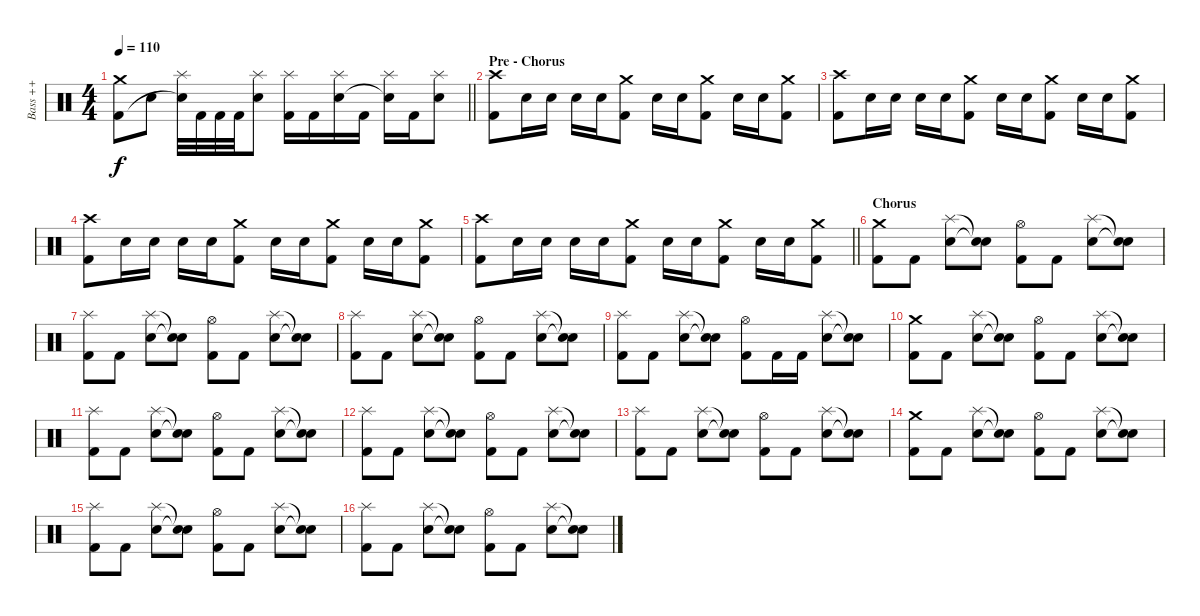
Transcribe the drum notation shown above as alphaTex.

\track ("  Bass ++" "  Bass ++") {instrument percussion}
\staff {score}
\articulation defaults
\ts (4 4)
\tempo 110
\clef neutral
\barLineRight lightlight
\ks c
("Crash medium (hit)" "Kick (hit) 2").8{dy f} "Snare (hit) 2".8 ("Splash (hit)" "Snare (hit)"{t}).32 "Kick (hit) 2".32 "Kick (hit) 2".32 "Kick (hit) 2".32 ("Splash (hit)" "Snare (hit) 2").8 ("Splash (hit)" "Kick (hit) 2").16 "Kick (hit) 2".16 ("Splash (hit)" "Snare (hit) 2").16 "Kick (hit) 2".16 ("Splash (hit)" "Snare (hit)"{t}).16 "Kick (hit) 2".16 ("Splash (hit)" "Snare (hit) 2").8 |
\section ("" "Pre - Chorus")
("Crash high (hit)" "Kick (hit) 2").8 "Electric Snare (hit)".16 "Electric Snare (hit)".16 "Electric Snare (hit)".16 "Electric Snare (hit)".16 ("Crash medium (hit)" "Kick (hit) 2").8 "Electric Snare (hit)".16 "Electric Snare (hit)".16 ("Crash medium (hit)" "Kick (hit) 2").8 "Electric Snare (hit)".16 "Electric Snare (hit)".16 ("Crash medium (hit)" "Kick (hit) 2").8 |
("Crash high (hit)" "Kick (hit) 2").8 "Electric Snare (hit)".16 "Electric Snare (hit)".16 "Electric Snare (hit)".16 "Electric Snare (hit)".16 ("Crash medium (hit)" "Kick (hit) 2").8 "Electric Snare (hit)".16 "Electric Snare (hit)".16 ("Crash medium (hit)" "Kick (hit) 2").8 "Electric Snare (hit)".16 "Electric Snare (hit)".16 ("Crash medium (hit)" "Kick (hit) 2").8 |
("Crash high (hit)" "Kick (hit) 2").8 "Electric Snare (hit)".16 "Electric Snare (hit)".16 "Electric Snare (hit)".16 "Electric Snare (hit)".16 ("Crash medium (hit)" "Kick (hit) 2").8 "Electric Snare (hit)".16 "Electric Snare (hit)".16 ("Crash medium (hit)" "Kick (hit) 2").8 "Electric Snare (hit)".16 "Electric Snare (hit)".16 ("Crash medium (hit)" "Kick (hit) 2").8 |
\barLineRight lightlight
("Crash high (hit)" "Kick (hit) 2").8 "Electric Snare (hit)".16 "Electric Snare (hit)".16 "Electric Snare (hit)".16 "Electric Snare (hit)".16 ("Crash medium (hit)" "Kick (hit) 2").8 "Electric Snare (hit)".16 "Electric Snare (hit)".16 ("Crash medium (hit)" "Kick (hit) 2").8 "Electric Snare (hit)".16 "Electric Snare (hit)".16 ("Crash medium (hit)" "Kick (hit) 2").8 |
\section ("" "Chorus")
("Crash medium (hit)" "Kick (hit) 2").8 "Kick (hit) 2".8 ("Splash (hit)" "Snare (hit) 2").8 ("Snare (hit)"{t} "Snare (hit)"{t}).8 ("Hi-Hat (open)" "Kick (hit) 2").8 "Kick (hit) 2".8 ("Splash (hit)" "Snare (hit) 2").8 ("Snare (hit)"{t} "Snare (hit)"{t}).8 |
("Splash (hit)" "Kick (hit) 2").8 "Kick (hit) 2".8 ("Splash (hit)" "Snare (hit) 2").8 ("Snare (hit)"{t} "Snare (hit)"{t}).8 ("Hi-Hat (open)" "Kick (hit) 2").8 "Kick (hit) 2".8 ("Splash (hit)" "Snare (hit) 2").8 ("Snare (hit)"{t} "Snare (hit)"{t}).8 |
("Splash (hit)" "Kick (hit) 2").8 "Kick (hit) 2".8 ("Splash (hit)" "Snare (hit) 2").8 ("Snare (hit)"{t} "Snare (hit)"{t}).8 ("Hi-Hat (open)" "Kick (hit) 2").8 "Kick (hit) 2".8 ("Splash (hit)" "Snare (hit) 2").8 ("Snare (hit)"{t} "Snare (hit)"{t}).8 |
("Splash (hit)" "Kick (hit) 2").8 "Kick (hit) 2".8 ("Splash (hit)" "Snare (hit) 2").8 ("Snare (hit)"{t} "Snare (hit)"{t}).8 ("Hi-Hat (open)" "Kick (hit) 2").8 "Kick (hit) 2".16 "Kick (hit) 2".16 ("Splash (hit)" "Snare (hit) 2").8 ("Snare (hit)"{t} "Snare (hit)"{t}).8 |
("Crash medium (hit)" "Kick (hit) 2").8 "Kick (hit) 2".8 ("Splash (hit)" "Snare (hit) 2").8 ("Snare (hit)"{t} "Snare (hit)"{t}).8 ("Hi-Hat (open)" "Kick (hit) 2").8 "Kick (hit) 2".8 ("Splash (hit)" "Snare (hit) 2").8 ("Snare (hit)"{t} "Snare (hit)"{t}).8 |
("Splash (hit)" "Kick (hit) 2").8 "Kick (hit) 2".8 ("Splash (hit)" "Snare (hit) 2").8 ("Snare (hit)"{t} "Snare (hit)"{t}).8 ("Hi-Hat (open)" "Kick (hit) 2").8 "Kick (hit) 2".8 ("Splash (hit)" "Snare (hit) 2").8 ("Snare (hit)"{t} "Snare (hit)"{t}).8 |
("Splash (hit)" "Kick (hit) 2").8 "Kick (hit) 2".8 ("Splash (hit)" "Snare (hit) 2").8 ("Snare (hit)"{t} "Snare (hit)"{t}).8 ("Hi-Hat (open)" "Kick (hit) 2").8 "Kick (hit) 2".8 ("Splash (hit)" "Snare (hit) 2").8 ("Snare (hit)"{t} "Snare (hit)"{t}).8 |
("Splash (hit)" "Kick (hit) 2").8 "Kick (hit) 2".8 ("Splash (hit)" "Snare (hit) 2").8 ("Snare (hit)"{t} "Snare (hit)"{t}).8 ("Hi-Hat (open)" "Kick (hit) 2").8 "Kick (hit) 2".8 ("Splash (hit)" "Snare (hit) 2").8 ("Snare (hit)"{t} "Snare (hit)"{t}).8 |
("Crash medium (hit)" "Kick (hit) 2").8 "Kick (hit) 2".8 ("Splash (hit)" "Snare (hit) 2").8 ("Snare (hit)"{t} "Snare (hit)"{t}).8 ("Hi-Hat (open)" "Kick (hit) 2").8 "Kick (hit) 2".8 ("Splash (hit)" "Snare (hit) 2").8 ("Snare (hit)"{t} "Snare (hit)"{t}).8 |
("Splash (hit)" "Kick (hit) 2").8 "Kick (hit) 2".8 ("Splash (hit)" "Snare (hit) 2").8 ("Snare (hit)"{t} "Snare (hit)"{t}).8 ("Hi-Hat (open)" "Kick (hit) 2").8 "Kick (hit) 2".8 ("Splash (hit)" "Snare (hit) 2").8 ("Snare (hit)"{t} "Snare (hit)"{t}).8 |
("Splash (hit)" "Kick (hit) 2").8 "Kick (hit) 2".8 ("Splash (hit)" "Snare (hit) 2").8 ("Snare (hit)"{t} "Snare (hit)"{t}).8 ("Hi-Hat (open)" "Kick (hit) 2").8 "Kick (hit) 2".8 ("Splash (hit)" "Snare (hit) 2").8 ("Snare (hit)"{t} "Snare (hit)"{t}).8
